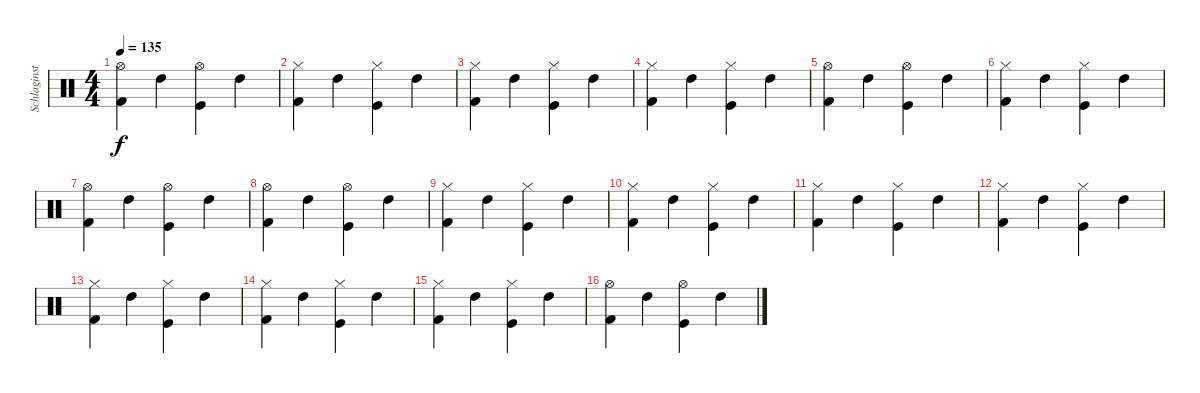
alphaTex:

\track ("Schlaginstrumente - Auswahl" "Schlaginst") {instrument percussion}
\staff {score}
\articulation defaults
\ts (4 4)
\tempo 135
\clef neutral
\ks c
("Kick (hit) 2" "Hi-Hat (open)").4{dy f} "High Tom (hit)".4 ("Kick (hit)" "Hi-Hat (open)").4 "High Tom (hit)".4 |
("Kick (hit) 2" "Hi-Hat (closed)").4 "High Tom (hit)".4 ("Kick (hit)" "Hi-Hat (closed)").4 "High Tom (hit)".4 |
("Kick (hit) 2" "Hi-Hat (closed)").4 "High Tom (hit)".4 ("Kick (hit)" "Hi-Hat (closed)").4 "High Tom (hit)".4 |
("Kick (hit) 2" "Hi-Hat (closed)").4 "High Tom (hit)".4 ("Kick (hit)" "Hi-Hat (closed)").4 "High Tom (hit)".4 |
("Kick (hit) 2" "Hi-Hat (open)").4 "High Tom (hit)".4 ("Kick (hit)" "Hi-Hat (open)").4 "High Tom (hit)".4 |
("Kick (hit) 2" "Hi-Hat (closed)").4 "High Tom (hit)".4 ("Kick (hit)" "Hi-Hat (closed)").4 "High Tom (hit)".4 |
("Kick (hit) 2" "Hi-Hat (open)").4 "High Tom (hit)".4 ("Kick (hit)" "Hi-Hat (open)").4 "High Tom (hit)".4 |
("Kick (hit) 2" "Hi-Hat (open)").4 "High Tom (hit)".4 ("Kick (hit)" "Hi-Hat (open)").4 "High Tom (hit)".4 |
("Kick (hit) 2" "Hi-Hat (closed)").4 "High Tom (hit)".4 ("Kick (hit)" "Hi-Hat (closed)").4 "High Tom (hit)".4 |
("Kick (hit) 2" "Hi-Hat (closed)").4 "High Tom (hit)".4 ("Kick (hit)" "Hi-Hat (closed)").4 "High Tom (hit)".4 |
("Kick (hit) 2" "Hi-Hat (closed)").4 "High Tom (hit)".4 ("Kick (hit)" "Hi-Hat (closed)").4 "High Tom (hit)".4 |
("Kick (hit) 2" "Hi-Hat (closed)").4 "High Tom (hit)".4 ("Kick (hit)" "Hi-Hat (closed)").4 "High Tom (hit)".4 |
("Kick (hit) 2" "Hi-Hat (closed)").4 "High Tom (hit)".4 ("Kick (hit)" "Hi-Hat (closed)").4 "High Tom (hit)".4 |
("Kick (hit) 2" "Hi-Hat (closed)").4 "High Tom (hit)".4 ("Kick (hit)" "Hi-Hat (closed)").4 "High Tom (hit)".4 |
("Kick (hit) 2" "Hi-Hat (closed)").4 "High Tom (hit)".4 ("Kick (hit)" "Hi-Hat (closed)").4 "High Tom (hit)".4 |
("Kick (hit) 2" "Hi-Hat (open)").4 "High Tom (hit)".4 ("Kick (hit)" "Hi-Hat (open)").4 "High Tom (hit)".4
